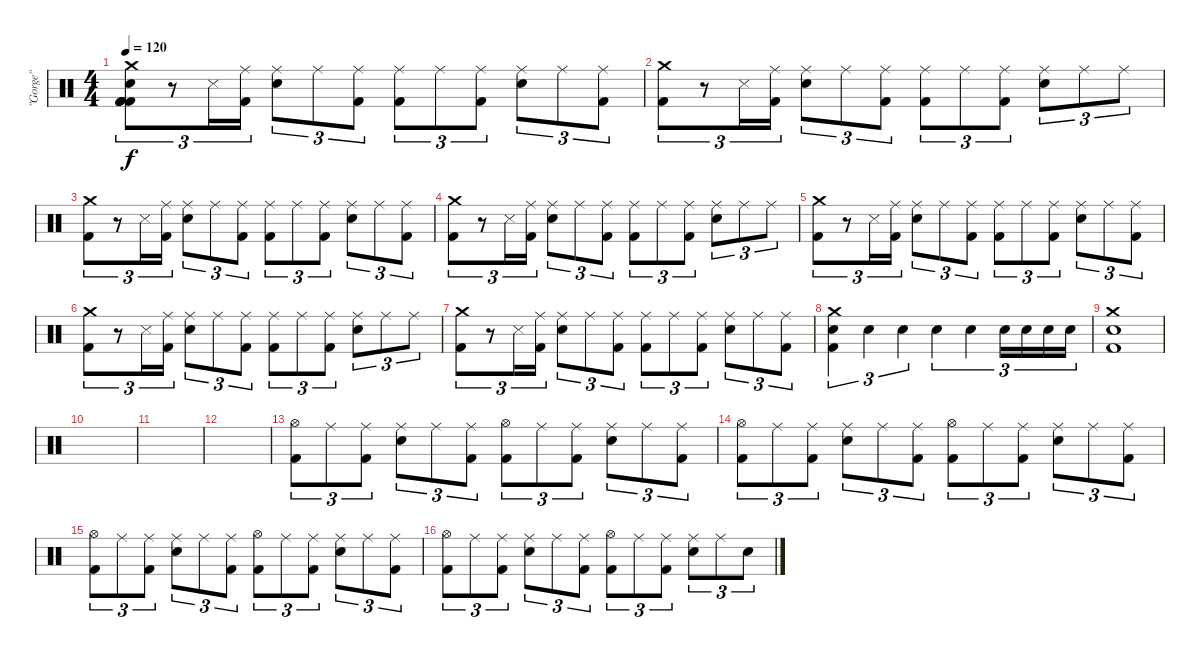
\track ("\"Gorge\"" "\"Gorge\"") {instrument percussion}
\staff {score}
\articulation defaults
\ts (4 4)
\tempo 120
\clef neutral
\ks c
("Crash medium (hit)" "Electric Snare (hit)" "Kick (hit) 2" "Kick (hit) 2" "Kick (hit) 2" "Kick (hit) 2").8{tu (3 2) dy f} r.8{tu (3 2)} "Snare (side stick) 3".16{tu (3 2)} ("Ride (middle)" "Kick (hit) 2").16{tu (3 2)} ("Ride (middle)" "Electric Snare (hit)").8{tu (3 2)} "Ride (middle)".8{tu (3 2)} ("Ride (middle)" "Kick (hit) 2").8{tu (3 2)} ("Ride (middle)" "Kick (hit) 2").8{tu (3 2)} "Ride (middle)".8{tu (3 2)} ("Ride (middle)" "Kick (hit) 2").8{tu (3 2)} ("Ride (middle)" "Electric Snare (hit)").8{tu (3 2)} "Ride (middle)".8{tu (3 2)} ("Ride (middle)" "Kick (hit) 2").8{tu (3 2)} |
("Crash medium (hit)" "Kick (hit) 2").8{tu (3 2)} r.8{tu (3 2)} "Snare (side stick) 3".16{tu (3 2)} ("Ride (middle)" "Kick (hit) 2").16{tu (3 2)} ("Ride (middle)" "Electric Snare (hit)").8{tu (3 2)} "Ride (middle)".8{tu (3 2)} ("Ride (middle)" "Kick (hit) 2").8{tu (3 2)} ("Ride (middle)" "Kick (hit) 2").8{tu (3 2)} "Ride (middle)".8{tu (3 2)} ("Ride (middle)" "Kick (hit) 2").8{tu (3 2)} ("Ride (middle)" "Electric Snare (hit)").8{tu (3 2)} "Ride (middle)".8{tu (3 2)} "Ride (middle)".8{tu (3 2)} |
("Crash medium (hit)" "Kick (hit) 2").8{tu (3 2)} r.8{tu (3 2)} "Snare (side stick) 3".16{tu (3 2)} ("Ride (middle)" "Kick (hit) 2").16{tu (3 2)} ("Ride (middle)" "Electric Snare (hit)").8{tu (3 2)} "Ride (middle)".8{tu (3 2)} ("Ride (middle)" "Kick (hit) 2").8{tu (3 2)} ("Ride (middle)" "Kick (hit) 2").8{tu (3 2)} "Ride (middle)".8{tu (3 2)} ("Ride (middle)" "Kick (hit) 2").8{tu (3 2)} ("Ride (middle)" "Electric Snare (hit)").8{tu (3 2)} "Ride (middle)".8{tu (3 2)} ("Ride (middle)" "Kick (hit) 2").8{tu (3 2)} |
("Crash medium (hit)" "Kick (hit) 2").8{tu (3 2)} r.8{tu (3 2)} "Snare (side stick) 3".16{tu (3 2)} ("Ride (middle)" "Kick (hit) 2").16{tu (3 2)} ("Ride (middle)" "Electric Snare (hit)").8{tu (3 2)} "Ride (middle)".8{tu (3 2)} ("Ride (middle)" "Kick (hit) 2").8{tu (3 2)} ("Ride (middle)" "Kick (hit) 2").8{tu (3 2)} "Ride (middle)".8{tu (3 2)} ("Ride (middle)" "Kick (hit) 2").8{tu (3 2)} ("Ride (middle)" "Electric Snare (hit)").8{tu (3 2)} "Ride (middle)".8{tu (3 2)} "Ride (middle)".8{tu (3 2)} |
("Crash medium (hit)" "Kick (hit) 2").8{tu (3 2)} r.8{tu (3 2)} "Snare (side stick) 3".16{tu (3 2)} ("Ride (middle)" "Kick (hit) 2").16{tu (3 2)} ("Ride (middle)" "Electric Snare (hit)").8{tu (3 2)} "Ride (middle)".8{tu (3 2)} ("Ride (middle)" "Kick (hit) 2").8{tu (3 2)} ("Ride (middle)" "Kick (hit) 2").8{tu (3 2)} "Ride (middle)".8{tu (3 2)} ("Ride (middle)" "Kick (hit) 2").8{tu (3 2)} ("Ride (middle)" "Electric Snare (hit)").8{tu (3 2)} "Ride (middle)".8{tu (3 2)} ("Ride (middle)" "Kick (hit) 2").8{tu (3 2)} |
("Crash medium (hit)" "Kick (hit) 2").8{tu (3 2)} r.8{tu (3 2)} "Snare (side stick) 3".16{tu (3 2)} ("Ride (middle)" "Kick (hit) 2").16{tu (3 2)} ("Ride (middle)" "Electric Snare (hit)").8{tu (3 2)} "Ride (middle)".8{tu (3 2)} ("Ride (middle)" "Kick (hit) 2").8{tu (3 2)} ("Ride (middle)" "Kick (hit) 2").8{tu (3 2)} "Ride (middle)".8{tu (3 2)} ("Ride (middle)" "Kick (hit) 2").8{tu (3 2)} ("Ride (middle)" "Electric Snare (hit)").8{tu (3 2)} "Ride (middle)".8{tu (3 2)} "Ride (middle)".8{tu (3 2)} |
("Crash medium (hit)" "Kick (hit) 2").8{tu (3 2)} r.8{tu (3 2)} "Snare (side stick) 3".16{tu (3 2)} ("Ride (middle)" "Kick (hit) 2").16{tu (3 2)} ("Ride (middle)" "Electric Snare (hit)").8{tu (3 2)} "Ride (middle)".8{tu (3 2)} ("Ride (middle)" "Kick (hit) 2").8{tu (3 2)} ("Ride (middle)" "Kick (hit) 2").8{tu (3 2)} "Ride (middle)".8{tu (3 2)} ("Ride (middle)" "Kick (hit) 2").8{tu (3 2)} ("Ride (middle)" "Electric Snare (hit)").8{tu (3 2)} "Ride (middle)".8{tu (3 2)} ("Ride (middle)" "Kick (hit) 2").8{tu (3 2)} |
("Electric Snare (hit)" "Kick (hit) 2" "Crash medium (hit)").4{tu (3 2)} "Electric Snare (hit)".4{tu (3 2)} "Electric Snare (hit)".4{tu (3 2)} "Electric Snare (hit)".4{tu (3 2)} "Electric Snare (hit)".4{tu (3 2)} "Electric Snare (hit)".16{tu (3 2)} "Electric Snare (hit)".16{tu (3 2)} "Electric Snare (hit)".16{tu (3 2)} "Electric Snare (hit)".16{tu (3 2)} |
("Kick (hit) 2" "Crash medium (hit)" "Electric Snare (hit)").1 |
|
|
|
("Hi-Hat (open)" "Kick (hit) 2").8{tu (3 2)} "Ride (middle)".8{tu (3 2)} ("Ride (middle)" "Kick (hit) 2").8{tu (3 2)} ("Ride (middle)" "Electric Snare (hit)").8{tu (3 2)} "Ride (middle)".8{tu (3 2)} ("Ride (middle)" "Kick (hit) 2").8{tu (3 2)} ("Hi-Hat (open)" "Kick (hit) 2").8{tu (3 2)} "Ride (middle)".8{tu (3 2)} ("Ride (middle)" "Kick (hit) 2").8{tu (3 2)} ("Ride (middle)" "Electric Snare (hit)").8{tu (3 2)} "Ride (middle)".8{tu (3 2)} ("Ride (middle)" "Kick (hit) 2").8{tu (3 2)} |
("Hi-Hat (open)" "Kick (hit) 2").8{tu (3 2)} "Ride (middle)".8{tu (3 2)} ("Ride (middle)" "Kick (hit) 2").8{tu (3 2)} ("Ride (middle)" "Electric Snare (hit)").8{tu (3 2)} "Ride (middle)".8{tu (3 2)} ("Ride (middle)" "Kick (hit) 2").8{tu (3 2)} ("Hi-Hat (open)" "Kick (hit) 2").8{tu (3 2)} "Ride (middle)".8{tu (3 2)} ("Ride (middle)" "Kick (hit) 2").8{tu (3 2)} ("Ride (middle)" "Electric Snare (hit)").8{tu (3 2)} "Ride (middle)".8{tu (3 2)} ("Ride (middle)" "Kick (hit) 2").8{tu (3 2)} |
("Hi-Hat (open)" "Kick (hit) 2").8{tu (3 2)} "Ride (middle)".8{tu (3 2)} ("Ride (middle)" "Kick (hit) 2").8{tu (3 2)} ("Ride (middle)" "Electric Snare (hit)").8{tu (3 2)} "Ride (middle)".8{tu (3 2)} ("Ride (middle)" "Kick (hit) 2").8{tu (3 2)} ("Hi-Hat (open)" "Kick (hit) 2").8{tu (3 2)} "Ride (middle)".8{tu (3 2)} ("Ride (middle)" "Kick (hit) 2").8{tu (3 2)} ("Ride (middle)" "Electric Snare (hit)").8{tu (3 2)} "Ride (middle)".8{tu (3 2)} ("Ride (middle)" "Kick (hit) 2").8{tu (3 2)} |
("Hi-Hat (open)" "Kick (hit) 2").8{tu (3 2)} "Ride (middle)".8{tu (3 2)} ("Ride (middle)" "Kick (hit) 2").8{tu (3 2)} ("Ride (middle)" "Electric Snare (hit)").8{tu (3 2)} "Ride (middle)".8{tu (3 2)} ("Ride (middle)" "Kick (hit) 2").8{tu (3 2)} ("Hi-Hat (open)" "Kick (hit) 2").8{tu (3 2)} "Ride (middle)".8{tu (3 2)} ("Ride (middle)" "Kick (hit) 2").8{tu (3 2)} ("Ride (middle)" "Electric Snare (hit)").8{tu (3 2)} "Ride (middle)".8{tu (3 2)} "Electric Snare (hit)".8{tu (3 2)}
